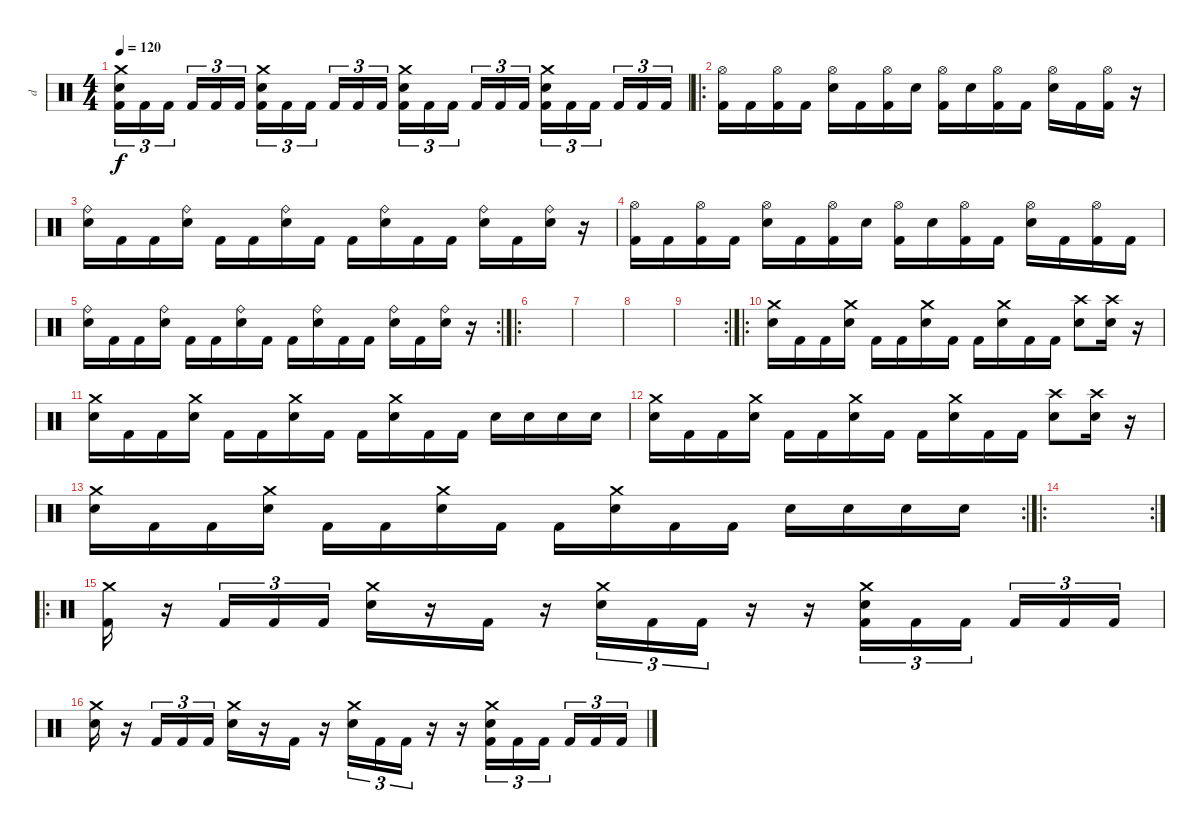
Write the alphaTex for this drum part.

\track ("d" "d") {instrument percussion}
\staff {score}
\articulation defaults
\ts (4 4)
\tempo 120
\clef neutral
\ks c
("Crash medium (hit)" "Electric Snare (hit)" "Kick (hit) 2").16{tu (3 2) dy f} "Kick (hit) 2".16{tu (3 2)} "Kick (hit) 2".16{tu (3 2) beam splitsecondary} "Kick (hit) 2".16{tu (3 2)} "Kick (hit) 2".16{tu (3 2)} "Kick (hit) 2".16{tu (3 2)} ("Crash medium (hit)" "Electric Snare (hit)" "Kick (hit) 2").16{tu (3 2)} "Kick (hit) 2".16{tu (3 2)} "Kick (hit) 2".16{tu (3 2) beam splitsecondary} "Kick (hit) 2".16{tu (3 2)} "Kick (hit) 2".16{tu (3 2)} "Kick (hit) 2".16{tu (3 2)} ("Crash medium (hit)" "Electric Snare (hit)" "Kick (hit) 2").16{tu (3 2)} "Kick (hit) 2".16{tu (3 2)} "Kick (hit) 2".16{tu (3 2) beam splitsecondary} "Kick (hit) 2".16{tu (3 2)} "Kick (hit) 2".16{tu (3 2)} "Kick (hit) 2".16{tu (3 2)} ("Crash medium (hit)" "Electric Snare (hit)" "Kick (hit) 2").16{tu (3 2)} "Kick (hit) 2".16{tu (3 2)} "Kick (hit) 2".16{tu (3 2) beam splitsecondary} "Kick (hit) 2".16{tu (3 2)} "Kick (hit) 2".16{tu (3 2)} "Kick (hit) 2".16{tu (3 2)} |
\ro
("Hi-Hat (open)" "Kick (hit) 2").16 "Kick (hit) 2".16 ("Hi-Hat (open)" "Kick (hit) 2").16 "Kick (hit) 2".16 ("Hi-Hat (open)" "Electric Snare (hit)").16 "Kick (hit) 2".16 ("Hi-Hat (open)" "Kick (hit) 2").16 "Electric Snare (hit)".16 ("Hi-Hat (open)" "Kick (hit) 2").16 "Electric Snare (hit)".16 ("Hi-Hat (open)" "Kick (hit) 2").16 "Kick (hit) 2".16 ("Hi-Hat (open)" "Electric Snare (hit)").16 "Kick (hit) 2".16 ("Hi-Hat (open)" "Kick (hit) 2").16 r.16 |
("Ride (bell)" "Electric Snare (hit)").16 "Kick (hit) 2".16 "Kick (hit) 2".16 ("Ride (bell)" "Electric Snare (hit)").16 "Kick (hit) 2".16 "Kick (hit) 2".16 ("Ride (bell)" "Electric Snare (hit)").16 "Kick (hit) 2".16 "Kick (hit) 2".16 ("Ride (bell)" "Electric Snare (hit)").16 "Kick (hit) 2".16 "Kick (hit) 2".16 ("Ride (bell)" "Electric Snare (hit)").16 "Kick (hit) 2".16 ("Ride (bell)" "Electric Snare (hit)").16 r.16 |
("Hi-Hat (open)" "Kick (hit) 2").16 "Kick (hit) 2".16 ("Hi-Hat (open)" "Kick (hit) 2").16 "Kick (hit) 2".16 ("Hi-Hat (open)" "Electric Snare (hit)").16 "Kick (hit) 2".16 ("Hi-Hat (open)" "Kick (hit) 2").16 "Electric Snare (hit)".16 ("Hi-Hat (open)" "Kick (hit) 2").16 "Electric Snare (hit)".16 ("Hi-Hat (open)" "Kick (hit) 2").16 "Kick (hit) 2".16 ("Hi-Hat (open)" "Electric Snare (hit)").16 "Kick (hit) 2".16 ("Hi-Hat (open)" "Kick (hit) 2").16 "Kick (hit) 2".16 |
\rc 2
("Ride (bell)" "Electric Snare (hit)").16 "Kick (hit) 2".16 "Kick (hit) 2".16 ("Ride (bell)" "Electric Snare (hit)").16 "Kick (hit) 2".16 "Kick (hit) 2".16 ("Ride (bell)" "Electric Snare (hit)").16 "Kick (hit) 2".16 "Kick (hit) 2".16 ("Ride (bell)" "Electric Snare (hit)").16 "Kick (hit) 2".16 "Kick (hit) 2".16 ("Ride (bell)" "Electric Snare (hit)").16 "Kick (hit) 2".16 ("Ride (bell)" "Electric Snare (hit)").16 r.16 |
\ro
|
|
|
\rc 2
|
\ro
("Crash medium (hit)" "Electric Snare (hit)").16 "Kick (hit) 2".16 "Kick (hit) 2".16 ("Crash medium (hit)" "Electric Snare (hit)").16 "Kick (hit) 2".16 "Kick (hit) 2".16 ("Crash medium (hit)" "Electric Snare (hit)").16 "Kick (hit) 2".16 "Kick (hit) 2".16 ("Crash medium (hit)" "Electric Snare (hit)").16 "Kick (hit) 2".16 "Kick (hit) 2".16 ("Crash high (hit)" "Electric Snare (hit)").8 ("Crash high (hit)" "Electric Snare (hit)").16 r.16 |
("Crash medium (hit)" "Electric Snare (hit)").16 "Kick (hit) 2".16 "Kick (hit) 2".16 ("Crash medium (hit)" "Electric Snare (hit)").16 "Kick (hit) 2".16 "Kick (hit) 2".16 ("Crash medium (hit)" "Electric Snare (hit)").16 "Kick (hit) 2".16 "Kick (hit) 2".16 ("Crash medium (hit)" "Electric Snare (hit)").16 "Kick (hit) 2".16 "Kick (hit) 2".16 "Electric Snare (hit)".16 "Electric Snare (hit)".16 "Electric Snare (hit)".16 "Electric Snare (hit)".16 |
("Crash medium (hit)" "Electric Snare (hit)").16 "Kick (hit) 2".16 "Kick (hit) 2".16 ("Crash medium (hit)" "Electric Snare (hit)").16 "Kick (hit) 2".16 "Kick (hit) 2".16 ("Crash medium (hit)" "Electric Snare (hit)").16 "Kick (hit) 2".16 "Kick (hit) 2".16 ("Crash medium (hit)" "Electric Snare (hit)").16 "Kick (hit) 2".16 "Kick (hit) 2".16 ("Crash high (hit)" "Electric Snare (hit)").8 ("Crash high (hit)" "Electric Snare (hit)").16 r.16 |
\rc 2
("Crash medium (hit)" "Electric Snare (hit)").16 "Kick (hit) 2".16 "Kick (hit) 2".16 ("Crash medium (hit)" "Electric Snare (hit)").16 "Kick (hit) 2".16 "Kick (hit) 2".16 ("Crash medium (hit)" "Electric Snare (hit)").16 "Kick (hit) 2".16 "Kick (hit) 2".16 ("Crash medium (hit)" "Electric Snare (hit)").16 "Kick (hit) 2".16 "Kick (hit) 2".16 "Electric Snare (hit)".16 "Electric Snare (hit)".16 "Electric Snare (hit)".16 "Electric Snare (hit)".16 |
\ro
\rc 2
|
\ro
("Kick (hit) 2" "Crash medium (hit)").16 r.16 "Kick (hit) 2".16{tu (3 2)} "Kick (hit) 2".16{tu (3 2)} "Kick (hit) 2".16{tu (3 2)} ("Electric Snare (hit)" "Crash medium (hit)").16 r.16 "Kick (hit) 2".16 r.16 ("Electric Snare (hit)" "Crash medium (hit)").16{tu (3 2)} "Kick (hit) 2".16{tu (3 2)} "Kick (hit) 2".16{tu (3 2)} r.16 r.16 ("Kick (hit) 2" "Electric Snare (hit)" "Crash medium (hit)").16{tu (3 2)} "Kick (hit) 2".16{tu (3 2)} "Kick (hit) 2".16{tu (3 2) beam splitsecondary} "Kick (hit) 2".16{tu (3 2)} "Kick (hit) 2".16{tu (3 2)} "Kick (hit) 2".16{tu (3 2)} |
("Electric Snare (hit)" "Crash medium (hit)").16 r.16 "Kick (hit) 2".16{tu (3 2)} "Kick (hit) 2".16{tu (3 2)} "Kick (hit) 2".16{tu (3 2)} ("Electric Snare (hit)" "Crash medium (hit)").16 r.16 "Kick (hit) 2".16 r.16 ("Electric Snare (hit)" "Crash medium (hit)").16{tu (3 2)} "Kick (hit) 2".16{tu (3 2)} "Kick (hit) 2".16{tu (3 2)} r.16 r.16 ("Kick (hit) 2" "Electric Snare (hit)" "Crash medium (hit)").16{tu (3 2)} "Kick (hit) 2".16{tu (3 2)} "Kick (hit) 2".16{tu (3 2) beam splitsecondary} "Kick (hit) 2".16{tu (3 2)} "Kick (hit) 2".16{tu (3 2)} "Kick (hit) 2".16{tu (3 2)}
